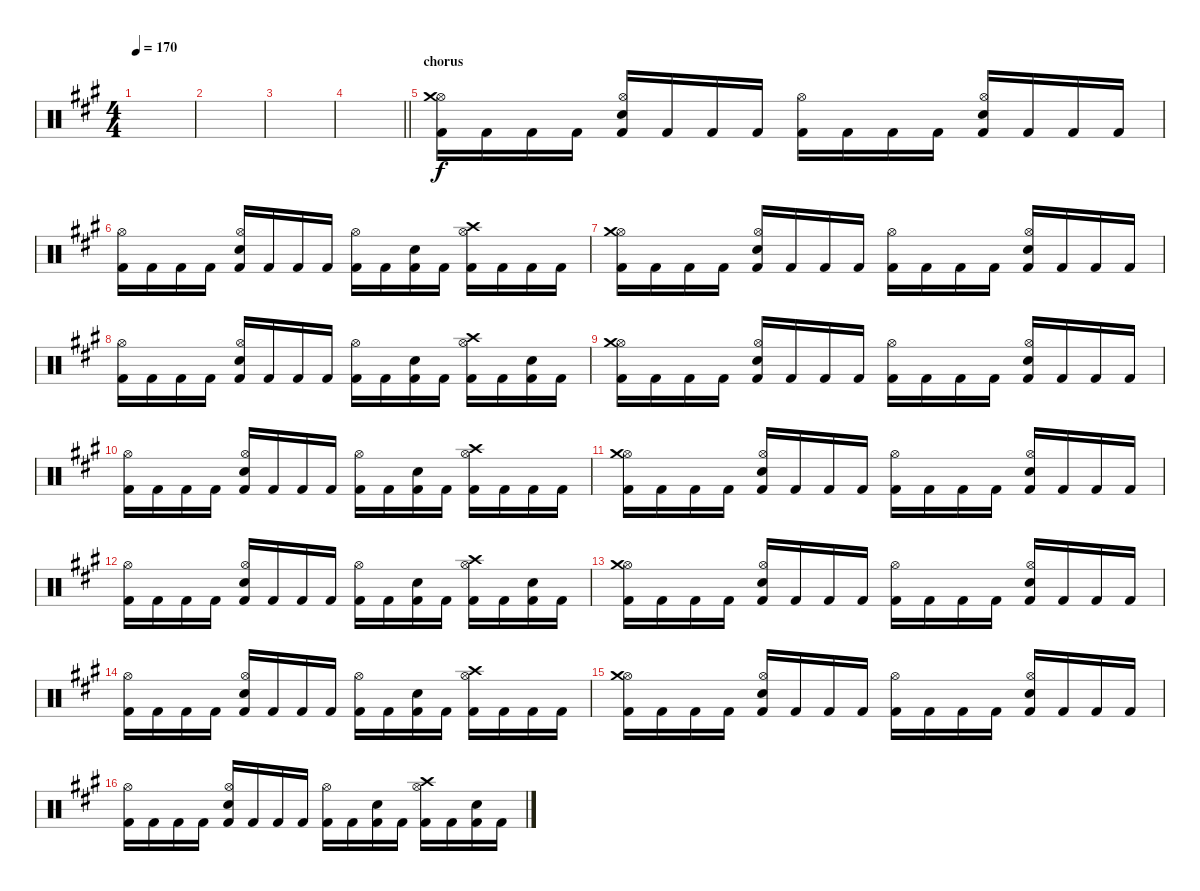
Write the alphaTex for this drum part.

\track "" {instrument percussion}
\staff {score}
\articulation defaults
\ts (4 4)
\tempo 170
\clef neutral
\ks f#minor
|
|
|
\barLineRight lightlight
|
\section ("" "chorus")
("Kick (hit) 2" "Hi-Hat (open)" "Crash medium (hit)").16 "Kick (hit) 2".16 "Kick (hit) 2".16 "Kick (hit) 2".16 ("Kick (hit) 2" "Electric Snare (hit)" "Hi-Hat (open)").16 "Kick (hit) 2".16 "Kick (hit) 2".16 "Kick (hit) 2".16 ("Kick (hit) 2" "Hi-Hat (open)").16 "Kick (hit) 2".16 "Kick (hit) 2".16 "Kick (hit) 2".16 ("Kick (hit) 2" "Electric Snare (hit)" "Hi-Hat (open)").16 "Kick (hit) 2".16 "Kick (hit) 2".16 "Kick (hit) 2".16 |
("Kick (hit) 2" "Hi-Hat (open)").16 "Kick (hit) 2".16 "Kick (hit) 2".16 "Kick (hit) 2".16 ("Kick (hit) 2" "Electric Snare (hit)" "Hi-Hat (open)").16 "Kick (hit) 2".16 "Kick (hit) 2".16 "Kick (hit) 2".16 ("Kick (hit) 2" "Hi-Hat (open)").16 "Kick (hit) 2".16 ("Kick (hit) 2" "Electric Snare (hit)").16 "Kick (hit) 2".16 ("Kick (hit) 2" "Hi-Hat (open)" "Crash high (hit)").16 "Kick (hit) 2".16 "Kick (hit) 2".16 "Kick (hit) 2".16 |
("Kick (hit) 2" "Hi-Hat (open)" "Crash medium (hit)").16 "Kick (hit) 2".16 "Kick (hit) 2".16 "Kick (hit) 2".16 ("Kick (hit) 2" "Electric Snare (hit)" "Hi-Hat (open)").16 "Kick (hit) 2".16 "Kick (hit) 2".16 "Kick (hit) 2".16 ("Kick (hit) 2" "Hi-Hat (open)").16 "Kick (hit) 2".16 "Kick (hit) 2".16 "Kick (hit) 2".16 ("Kick (hit) 2" "Electric Snare (hit)" "Hi-Hat (open)").16 "Kick (hit) 2".16 "Kick (hit) 2".16 "Kick (hit) 2".16 |
("Kick (hit) 2" "Hi-Hat (open)").16 "Kick (hit) 2".16 "Kick (hit) 2".16 "Kick (hit) 2".16 ("Kick (hit) 2" "Electric Snare (hit)" "Hi-Hat (open)").16 "Kick (hit) 2".16 "Kick (hit) 2".16 "Kick (hit) 2".16 ("Kick (hit) 2" "Hi-Hat (open)").16 "Kick (hit) 2".16 ("Kick (hit) 2" "Electric Snare (hit)").16 "Kick (hit) 2".16 ("Kick (hit) 2" "Hi-Hat (open)" "Crash high (hit)").16 "Kick (hit) 2".16 ("Kick (hit) 2" "Electric Snare (hit)").16 "Kick (hit) 2".16 |
("Kick (hit) 2" "Hi-Hat (open)" "Crash medium (hit)").16 "Kick (hit) 2".16 "Kick (hit) 2".16 "Kick (hit) 2".16 ("Kick (hit) 2" "Electric Snare (hit)" "Hi-Hat (open)").16 "Kick (hit) 2".16 "Kick (hit) 2".16 "Kick (hit) 2".16 ("Kick (hit) 2" "Hi-Hat (open)").16 "Kick (hit) 2".16 "Kick (hit) 2".16 "Kick (hit) 2".16 ("Kick (hit) 2" "Electric Snare (hit)" "Hi-Hat (open)").16 "Kick (hit) 2".16 "Kick (hit) 2".16 "Kick (hit) 2".16 |
("Kick (hit) 2" "Hi-Hat (open)").16 "Kick (hit) 2".16 "Kick (hit) 2".16 "Kick (hit) 2".16 ("Kick (hit) 2" "Electric Snare (hit)" "Hi-Hat (open)").16 "Kick (hit) 2".16 "Kick (hit) 2".16 "Kick (hit) 2".16 ("Kick (hit) 2" "Hi-Hat (open)").16 "Kick (hit) 2".16 ("Kick (hit) 2" "Electric Snare (hit)").16 "Kick (hit) 2".16 ("Kick (hit) 2" "Hi-Hat (open)" "Crash high (hit)").16 "Kick (hit) 2".16 "Kick (hit) 2".16 "Kick (hit) 2".16 |
("Kick (hit) 2" "Hi-Hat (open)" "Crash medium (hit)").16 "Kick (hit) 2".16 "Kick (hit) 2".16 "Kick (hit) 2".16 ("Kick (hit) 2" "Electric Snare (hit)" "Hi-Hat (open)").16 "Kick (hit) 2".16 "Kick (hit) 2".16 "Kick (hit) 2".16 ("Kick (hit) 2" "Hi-Hat (open)").16 "Kick (hit) 2".16 "Kick (hit) 2".16 "Kick (hit) 2".16 ("Kick (hit) 2" "Electric Snare (hit)" "Hi-Hat (open)").16 "Kick (hit) 2".16 "Kick (hit) 2".16 "Kick (hit) 2".16 |
("Kick (hit) 2" "Hi-Hat (open)").16 "Kick (hit) 2".16 "Kick (hit) 2".16 "Kick (hit) 2".16 ("Kick (hit) 2" "Electric Snare (hit)" "Hi-Hat (open)").16 "Kick (hit) 2".16 "Kick (hit) 2".16 "Kick (hit) 2".16 ("Kick (hit) 2" "Hi-Hat (open)").16 "Kick (hit) 2".16 ("Kick (hit) 2" "Electric Snare (hit)").16 "Kick (hit) 2".16 ("Kick (hit) 2" "Hi-Hat (open)" "Crash high (hit)").16 "Kick (hit) 2".16 ("Kick (hit) 2" "Electric Snare (hit)").16 "Kick (hit) 2".16 |
("Kick (hit) 2" "Hi-Hat (open)" "Crash medium (hit)").16 "Kick (hit) 2".16 "Kick (hit) 2".16 "Kick (hit) 2".16 ("Kick (hit) 2" "Electric Snare (hit)" "Hi-Hat (open)").16 "Kick (hit) 2".16 "Kick (hit) 2".16 "Kick (hit) 2".16 ("Kick (hit) 2" "Hi-Hat (open)").16 "Kick (hit) 2".16 "Kick (hit) 2".16 "Kick (hit) 2".16 ("Kick (hit) 2" "Electric Snare (hit)" "Hi-Hat (open)").16 "Kick (hit) 2".16 "Kick (hit) 2".16 "Kick (hit) 2".16 |
("Kick (hit) 2" "Hi-Hat (open)").16 "Kick (hit) 2".16 "Kick (hit) 2".16 "Kick (hit) 2".16 ("Kick (hit) 2" "Electric Snare (hit)" "Hi-Hat (open)").16 "Kick (hit) 2".16 "Kick (hit) 2".16 "Kick (hit) 2".16 ("Kick (hit) 2" "Hi-Hat (open)").16 "Kick (hit) 2".16 ("Kick (hit) 2" "Electric Snare (hit)").16 "Kick (hit) 2".16 ("Kick (hit) 2" "Hi-Hat (open)" "Crash high (hit)").16 "Kick (hit) 2".16 "Kick (hit) 2".16 "Kick (hit) 2".16 |
("Kick (hit) 2" "Hi-Hat (open)" "Crash medium (hit)").16 "Kick (hit) 2".16 "Kick (hit) 2".16 "Kick (hit) 2".16 ("Kick (hit) 2" "Electric Snare (hit)" "Hi-Hat (open)").16 "Kick (hit) 2".16 "Kick (hit) 2".16 "Kick (hit) 2".16 ("Kick (hit) 2" "Hi-Hat (open)").16 "Kick (hit) 2".16 "Kick (hit) 2".16 "Kick (hit) 2".16 ("Kick (hit) 2" "Electric Snare (hit)" "Hi-Hat (open)").16 "Kick (hit) 2".16 "Kick (hit) 2".16 "Kick (hit) 2".16 |
("Kick (hit) 2" "Hi-Hat (open)").16 "Kick (hit) 2".16 "Kick (hit) 2".16 "Kick (hit) 2".16 ("Kick (hit) 2" "Electric Snare (hit)" "Hi-Hat (open)").16 "Kick (hit) 2".16 "Kick (hit) 2".16 "Kick (hit) 2".16 ("Kick (hit) 2" "Hi-Hat (open)").16 "Kick (hit) 2".16 ("Kick (hit) 2" "Electric Snare (hit)").16 "Kick (hit) 2".16 ("Kick (hit) 2" "Hi-Hat (open)" "Crash high (hit)").16 "Kick (hit) 2".16 ("Kick (hit) 2" "Electric Snare (hit)").16 "Kick (hit) 2".16
